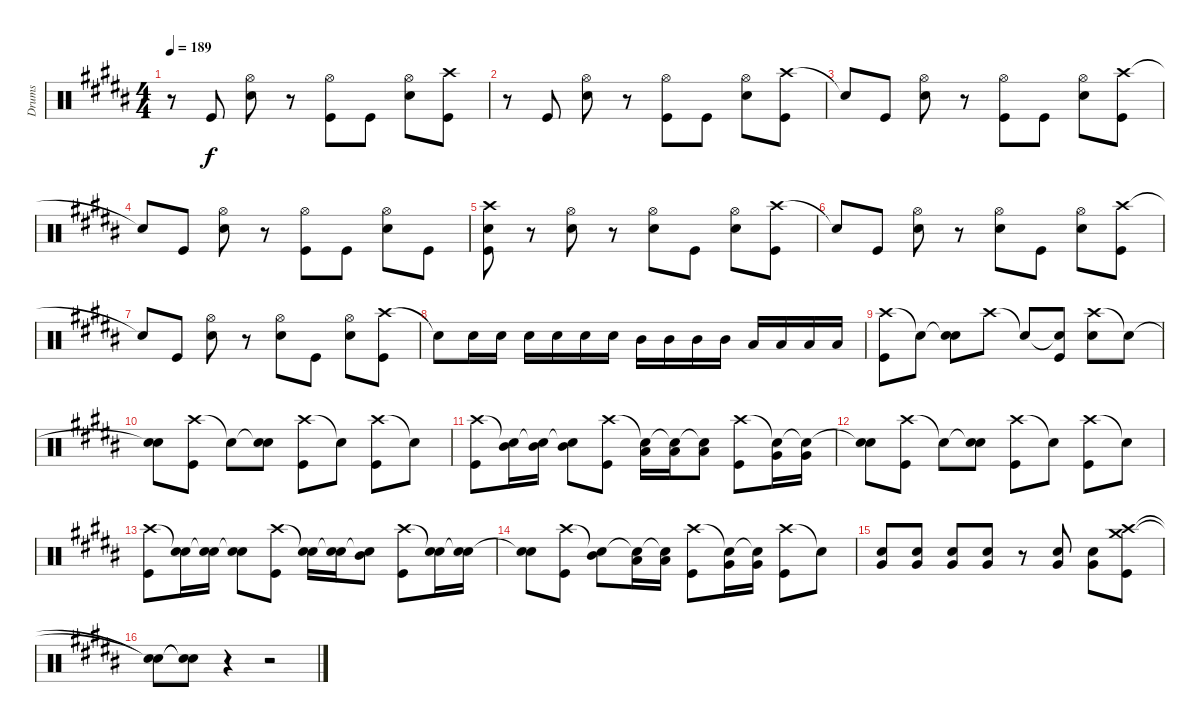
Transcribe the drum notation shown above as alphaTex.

\track ("Drums" "Drums") {instrument percussion}
\staff {score}
\articulation defaults
\ts (4 4)
\tempo 189
\clef neutral
\ks b
r.8{dy f} "Kick (hit)".8 ("Hi-Hat (open)" "Snare (hit) 2").8 r.8 ("Hi-Hat (open)" "Kick (hit)").8 "Kick (hit)".8 ("Hi-Hat (open)" "Snare (hit) 2").8 ("Crash high (hit)" "Kick (hit)").8 |
r.8 "Kick (hit)".8 ("Hi-Hat (open)" "Snare (hit) 2").8 r.8 ("Hi-Hat (open)" "Kick (hit)").8 "Kick (hit)".8 ("Hi-Hat (open)" "Snare (hit) 2").8 ("Crash high (hit)" "Kick (hit)").8 |
"Snare (hit)"{t}.8 "Kick (hit)".8 ("Hi-Hat (open)" "Snare (hit) 2").8 r.8 ("Hi-Hat (open)" "Kick (hit)").8 "Kick (hit)".8 ("Hi-Hat (open)" "Snare (hit) 2").8 ("Crash high (hit)" "Kick (hit)").8 |
"Snare (hit)"{t}.8 "Kick (hit)".8 ("Hi-Hat (open)" "Snare (hit) 2").8 r.8 ("Hi-Hat (open)" "Kick (hit)").8 "Kick (hit)".8 ("Hi-Hat (open)" "Snare (hit) 2").8 "Kick (hit)".8 |
("Crash high (hit)" "Snare (hit) 2" "Kick (hit)").8 r.8 ("Hi-Hat (open)" "Snare (hit) 2").8 r.8 ("Hi-Hat (open)" "Snare (hit) 2").8 "Kick (hit)".8 ("Hi-Hat (open)" "Snare (hit) 2").8 ("Crash high (hit)" "Kick (hit)").8 |
"Snare (hit)"{t}.8 "Kick (hit)".8 ("Hi-Hat (open)" "Snare (hit) 2").8 r.8 ("Hi-Hat (open)" "Snare (hit) 2").8 "Kick (hit)".8 ("Hi-Hat (open)" "Snare (hit) 2").8 ("Crash high (hit)" "Kick (hit)").8 |
"Snare (hit)"{t}.8 "Kick (hit)".8 ("Hi-Hat (open)" "Snare (hit) 2").8 r.8 ("Hi-Hat (open)" "Snare (hit) 2").8 "Kick (hit)".8 ("Hi-Hat (open)" "Snare (hit) 2").8 ("Crash high (hit)" "Kick (hit)").8 |
"Snare (hit)"{t}.8 "Snare (hit) 2".16 "Snare (hit) 2".16 "Snare (hit) 2".16 "Snare (hit) 2".16 "Snare (hit) 2".16 "Snare (hit) 2".16 "Mid Tom (hit)".16 "Mid Tom (hit)".16 "Mid Tom (hit)".16 "Mid Tom (hit)".16 "Low Tom (hit)".16 "Low Tom (hit)".16 "Low Tom (hit)".16 "Low Tom (hit)".16 |
("Crash high (hit)" "Kick (hit)").8 "Snare (hit)"{t}.8 ("Snare (hit)"{t} "Snare (hit) 2").8 "Crash high (hit)".8 "Snare (hit)"{t}.8 ("Snare (hit)"{t} "Kick (hit)").8 ("Crash high (hit)" "Snare (hit) 2").8 "Snare (hit)"{t}.8 |
("Snare (hit)"{t} "Snare (hit) 2").8 ("Crash high (hit)" "Kick (hit)").8 "Snare (hit)"{t}.8 ("Snare (hit)"{t} "Snare (hit) 2").8 ("Crash high (hit)" "Kick (hit)").8 "Snare (hit)"{t}.8 ("Crash high (hit)" "Kick (hit)").8 "Snare (hit)"{t}.8 |
("Crash high (hit)" "Kick (hit)").8 ("Snare (hit)"{t} "Mid Tom (hit)").16 ("Snare (hit)"{t} "Mid Tom (hit)").16 ("Snare (hit)"{t} "Mid Tom (hit)").8 ("Crash high (hit)" "Kick (hit)").8 ("Snare (hit)"{t} "Low Tom (hit)").16 ("Snare (hit)"{t} "Low Tom (hit)").16 ("Snare (hit)"{t} "Low Tom (hit)").8 ("Crash high (hit)" "Kick (hit)").8 ("Snare (hit)"{t} "Very Low Tom (hit)").16 ("Snare (hit)"{t} "Very Low Tom (hit)").16 |
("Snare (hit)"{t} "Snare (hit) 2").8 ("Crash high (hit)" "Kick (hit)").8 "Snare (hit)"{t}.8 ("Snare (hit)"{t} "Snare (hit) 2").8 ("Crash high (hit)" "Kick (hit)").8 "Snare (hit)"{t}.8 ("Crash high (hit)" "Kick (hit)").8 "Snare (hit)"{t}.8 |
("Crash high (hit)" "Kick (hit)").8 ("Snare (hit)"{t} "Snare (hit) 2").16 ("Snare (hit)"{t} "Snare (hit) 2").16 ("Snare (hit)"{t} "Snare (hit) 2").8 ("Crash high (hit)" "Kick (hit)").8 ("Snare (hit)"{t} "Snare (hit) 2").16 ("Snare (hit)"{t} "Snare (hit) 2").16 ("Snare (hit)"{t} "Mid Tom (hit)").8 ("Crash high (hit)" "Kick (hit)").8 ("Snare (hit)"{t} "Snare (hit) 2").16 ("Snare (hit)"{t} "Snare (hit) 2").16 |
("Snare (hit)"{t} "Snare (hit) 2").8 ("Crash high (hit)" "Kick (hit)").8 ("Snare (hit)"{t} "Mid Tom (hit)").8 ("Snare (hit)"{t} "Low Tom (hit)").16 ("Snare (hit)"{t} "Low Tom (hit)").16 ("Crash high (hit)" "Kick (hit)").8 ("Snare (hit)"{t} "Very Low Tom (hit)").16 ("Snare (hit)"{t} "Very Low Tom (hit)").16 ("Crash high (hit)" "Kick (hit)").8 "Snare (hit)"{t}.8 |
("Snare (hit) 2" "Very Low Tom (hit)").8 ("Snare (hit) 2" "Very Low Tom (hit)").8 ("Snare (hit) 2" "Very Low Tom (hit)").8 ("Snare (hit) 2" "Very Low Tom (hit)").8 r.8 ("Snare (hit) 2" "Very Low Tom (hit)").8 ("Snare (hit) 2" "Very Low Tom (hit)").8 ("Crash high (hit)" "Crash medium (hit)" "Kick (hit)").8 |
("Snare (hit)"{t} "Snare (hit)"{t}).8 ("Snare (hit)"{t} "Snare (hit)"{t}).8 r.4 r.2
